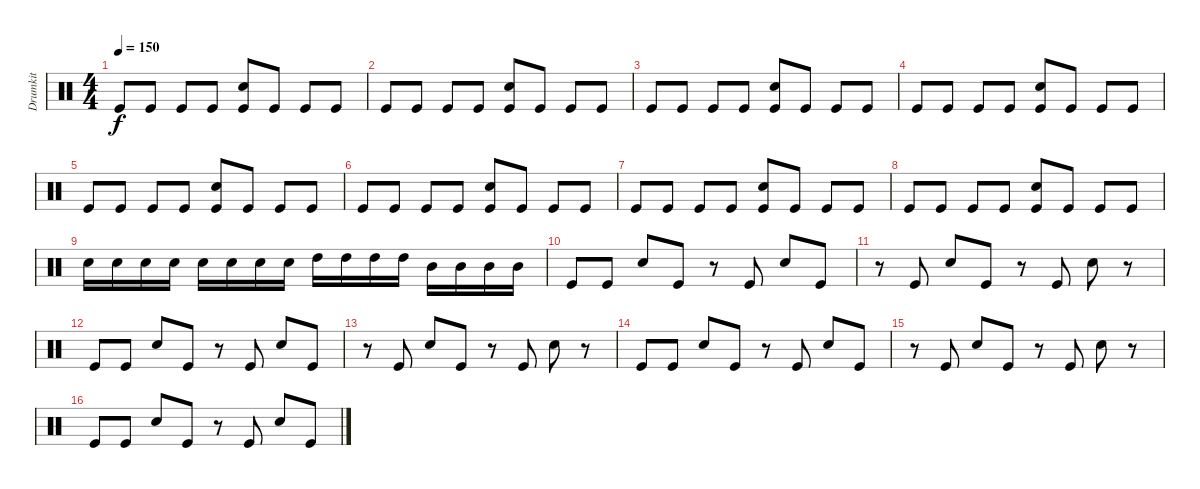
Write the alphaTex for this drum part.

\track ("Drumkit" "Drumkit") {instrument percussion}
\staff {score}
\articulation defaults
\ts (4 4)
\tempo 150
\clef neutral
\ks c "Kick (hit)".8{dy f} "Kick (hit)".8 "Kick (hit)".8 "Kick (hit)".8
("Kick (hit)" "Snare (hit) 2").8 "Kick (hit)".8 "Kick (hit)".8 "Kick (hit)".8 |
"Kick (hit)".8 "Kick (hit)".8 "Kick (hit)".8 "Kick (hit)".8 ("Kick (hit)" "Snare (hit) 2").8 "Kick (hit)".8 "Kick (hit)".8 "Kick (hit)".8 |
"Kick (hit)".8 "Kick (hit)".8 "Kick (hit)".8 "Kick (hit)".8 ("Kick (hit)" "Snare (hit) 2").8 "Kick (hit)".8 "Kick (hit)".8 "Kick (hit)".8 |
"Kick (hit)".8 "Kick (hit)".8 "Kick (hit)".8 "Kick (hit)".8 ("Kick (hit)" "Snare (hit) 2").8 "Kick (hit)".8 "Kick (hit)".8 "Kick (hit)".8 |
"Kick (hit)".8 "Kick (hit)".8 "Kick (hit)".8 "Kick (hit)".8 ("Kick (hit)" "Snare (hit) 2").8 "Kick (hit)".8 "Kick (hit)".8 "Kick (hit)".8 |
"Kick (hit)".8 "Kick (hit)".8 "Kick (hit)".8 "Kick (hit)".8 ("Kick (hit)" "Snare (hit) 2").8 "Kick (hit)".8 "Kick (hit)".8 "Kick (hit)".8 |
"Kick (hit)".8 "Kick (hit)".8 "Kick (hit)".8 "Kick (hit)".8 ("Kick (hit)" "Snare (hit) 2").8 "Kick (hit)".8 "Kick (hit)".8 "Kick (hit)".8 |
"Kick (hit)".8 "Kick (hit)".8 "Kick (hit)".8 "Kick (hit)".8 ("Kick (hit)" "Snare (hit) 2").8 "Kick (hit)".8 "Kick (hit)".8 "Kick (hit)".8 |
"Snare (hit) 2".16 "Snare (hit) 2".16 "Snare (hit) 2".16 "Snare (hit) 2".16 "Snare (hit) 2".16 "Snare (hit) 2".16 "Snare (hit) 2".16 "Snare (hit) 2".16 "High Tom (hit)".16 "High Tom (hit)".16 "High Tom (hit)".16 "High Tom (hit)".16 "Mid Tom (hit)".16 "Mid Tom (hit)".16 "Mid Tom (hit)".16 "Mid Tom (hit)".16 |
"Kick (hit)".8 "Kick (hit)".8 "Snare (hit) 2".8 "Kick (hit)".8 r.8 "Kick (hit)".8 "Snare (hit) 2".8 "Kick (hit)".8 |
r.8 "Kick (hit)".8 "Snare (hit) 2".8 "Kick (hit)".8 r.8 "Kick (hit)".8 "Snare (hit) 2".8 r.8 |
"Kick (hit)".8 "Kick (hit)".8 "Snare (hit) 2".8 "Kick (hit)".8 r.8 "Kick (hit)".8 "Snare (hit) 2".8 "Kick (hit)".8 |
r.8 "Kick (hit)".8 "Snare (hit) 2".8 "Kick (hit)".8 r.8 "Kick (hit)".8 "Snare (hit) 2".8 r.8 |
"Kick (hit)".8 "Kick (hit)".8 "Snare (hit) 2".8 "Kick (hit)".8 r.8 "Kick (hit)".8 "Snare (hit) 2".8 "Kick (hit)".8 |
r.8 "Kick (hit)".8 "Snare (hit) 2".8 "Kick (hit)".8 r.8 "Kick (hit)".8 "Snare (hit) 2".8 r.8 |
"Kick (hit)".8 "Kick (hit)".8 "Snare (hit) 2".8 "Kick (hit)".8 r.8 "Kick (hit)".8 "Snare (hit) 2".8 "Kick (hit)".8
